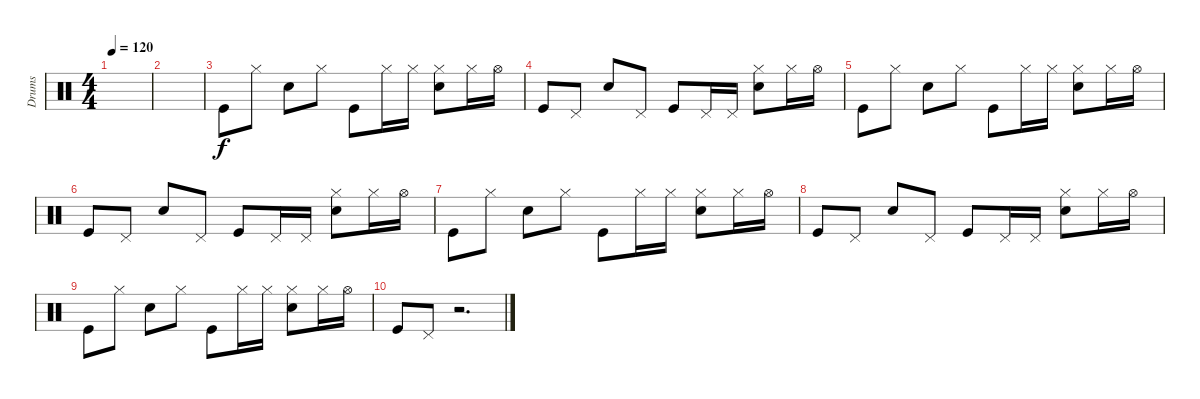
\track ("Drums" "Drums") {instrument percussion}
\staff {score}
\articulation defaults
\ts (4 4)
\tempo 120
\clef neutral
\ks c
|
|
"Kick (hit)".8 "Hi-Hat (closed)".8 "Snare (hit) 2".8 "Hi-Hat (closed)".8 "Kick (hit)".8 "Hi-Hat (closed)".16 "Hi-Hat (closed)".16 ("Hi-Hat (closed)" "Snare (hit) 2").8 "Hi-Hat (closed)".16 "Hi-Hat (open)".16 |
"Kick (hit)".8 "Pedal Hi-Hat (hit)".8 "Snare (hit) 2".8 "Pedal Hi-Hat (hit)".8 "Kick (hit)".8 "Pedal Hi-Hat (hit)".16 "Pedal Hi-Hat (hit)".16 ("Hi-Hat (closed)" "Snare (hit) 2").8 "Hi-Hat (closed)".16 "Hi-Hat (open)".16 |
"Kick (hit)".8 "Hi-Hat (closed)".8 "Snare (hit) 2".8 "Hi-Hat (closed)".8 "Kick (hit)".8 "Hi-Hat (closed)".16 "Hi-Hat (closed)".16 ("Hi-Hat (closed)" "Snare (hit) 2").8 "Hi-Hat (closed)".16 "Hi-Hat (open)".16 |
"Kick (hit)".8 "Pedal Hi-Hat (hit)".8 "Snare (hit) 2".8 "Pedal Hi-Hat (hit)".8 "Kick (hit)".8 "Pedal Hi-Hat (hit)".16 "Pedal Hi-Hat (hit)".16 ("Hi-Hat (closed)" "Snare (hit) 2").8 "Hi-Hat (closed)".16 "Hi-Hat (open)".16 |
"Kick (hit)".8 "Hi-Hat (closed)".8 "Snare (hit) 2".8 "Hi-Hat (closed)".8 "Kick (hit)".8 "Hi-Hat (closed)".16 "Hi-Hat (closed)".16 ("Hi-Hat (closed)" "Snare (hit) 2").8 "Hi-Hat (closed)".16 "Hi-Hat (open)".16 |
"Kick (hit)".8 "Pedal Hi-Hat (hit)".8 "Snare (hit) 2".8 "Pedal Hi-Hat (hit)".8 "Kick (hit)".8 "Pedal Hi-Hat (hit)".16 "Pedal Hi-Hat (hit)".16 ("Hi-Hat (closed)" "Snare (hit) 2").8 "Hi-Hat (closed)".16 "Hi-Hat (open)".16 |
"Kick (hit)".8 "Hi-Hat (closed)".8 "Snare (hit) 2".8 "Hi-Hat (closed)".8 "Kick (hit)".8 "Hi-Hat (closed)".16 "Hi-Hat (closed)".16 ("Hi-Hat (closed)" "Snare (hit) 2").8 "Hi-Hat (closed)".16 "Hi-Hat (open)".16 |
"Kick (hit)".8 "Pedal Hi-Hat (hit)".8 r.2{d}
